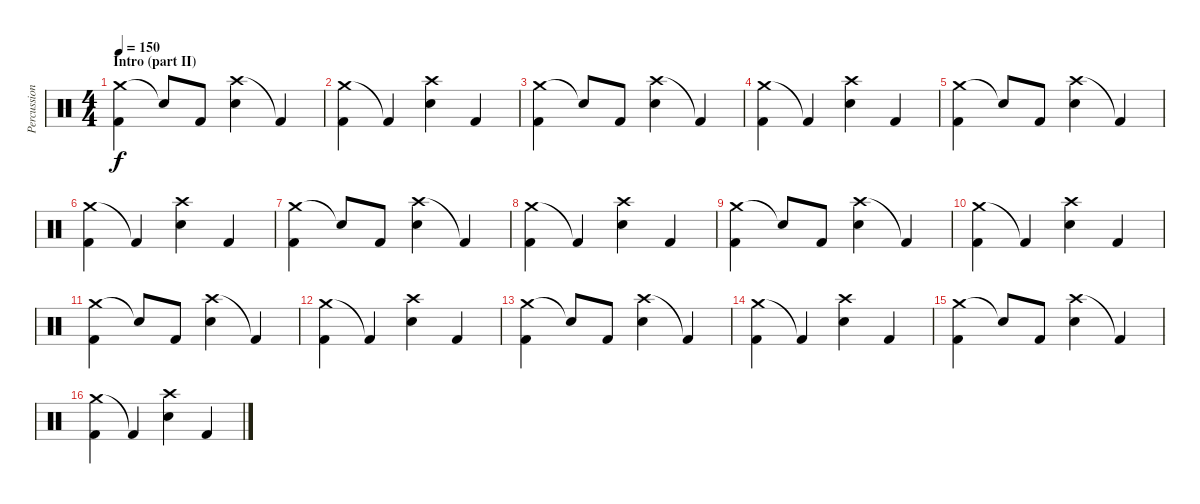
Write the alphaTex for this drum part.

\track ("Percussions" "Percussion") {instrument percussion}
\staff {score}
\articulation defaults
\ts (4 4)
\section ("" "Intro (part II)")
\tempo 150
\clef neutral
\ks c
("Crash medium (hit)" "Kick (hit) 2").4{dy f} "Snare (hit)"{t}.8 "Kick (hit) 2".8 ("Crash high (hit)" "Snare (hit) 2").4 "Kick (hit) 2"{t}.4 |
("Crash medium (hit)" "Kick (hit) 2").4 "Kick (hit) 2"{t}.4 ("Crash high (hit)" "Snare (hit) 2").4 "Kick (hit) 2".4 |
("Crash medium (hit)" "Kick (hit) 2").4 "Snare (hit)"{t}.8 "Kick (hit) 2".8 ("Crash high (hit)" "Snare (hit) 2").4 "Kick (hit) 2"{t}.4 |
("Crash medium (hit)" "Kick (hit) 2").4 "Kick (hit) 2"{t}.4 ("Crash high (hit)" "Snare (hit) 2").4 "Kick (hit) 2".4 |
("Crash medium (hit)" "Kick (hit) 2").4 "Snare (hit)"{t}.8 "Kick (hit) 2".8 ("Crash high (hit)" "Snare (hit) 2").4 "Kick (hit) 2"{t}.4 |
("Crash medium (hit)" "Kick (hit) 2").4 "Kick (hit) 2"{t}.4 ("Crash high (hit)" "Snare (hit) 2").4 "Kick (hit) 2".4 |
("Crash medium (hit)" "Kick (hit) 2").4 "Snare (hit)"{t}.8 "Kick (hit) 2".8 ("Crash high (hit)" "Snare (hit) 2").4 "Kick (hit) 2"{t}.4 |
("Crash medium (hit)" "Kick (hit) 2").4 "Kick (hit) 2"{t}.4 ("Crash high (hit)" "Snare (hit) 2").4 "Kick (hit) 2".4 |
("Crash medium (hit)" "Kick (hit) 2").4 "Snare (hit)"{t}.8 "Kick (hit) 2".8 ("Crash high (hit)" "Snare (hit) 2").4 "Kick (hit) 2"{t}.4 |
("Crash medium (hit)" "Kick (hit) 2").4 "Kick (hit) 2"{t}.4 ("Crash high (hit)" "Snare (hit) 2").4 "Kick (hit) 2".4 |
("Crash medium (hit)" "Kick (hit) 2").4 "Snare (hit)"{t}.8 "Kick (hit) 2".8 ("Crash high (hit)" "Snare (hit) 2").4 "Kick (hit) 2"{t}.4 |
("Crash medium (hit)" "Kick (hit) 2").4 "Kick (hit) 2"{t}.4 ("Crash high (hit)" "Snare (hit) 2").4 "Kick (hit) 2".4 |
("Crash medium (hit)" "Kick (hit) 2").4 "Snare (hit)"{t}.8 "Kick (hit) 2".8 ("Crash high (hit)" "Snare (hit) 2").4 "Kick (hit) 2"{t}.4 |
("Crash medium (hit)" "Kick (hit) 2").4 "Kick (hit) 2"{t}.4 ("Crash high (hit)" "Snare (hit) 2").4 "Kick (hit) 2".4 |
("Crash medium (hit)" "Kick (hit) 2").4 "Snare (hit)"{t}.8 "Kick (hit) 2".8 ("Crash high (hit)" "Snare (hit) 2").4 "Kick (hit) 2"{t}.4 |
("Crash medium (hit)" "Kick (hit) 2").4 "Kick (hit) 2"{t}.4 ("Crash high (hit)" "Snare (hit) 2").4 "Kick (hit) 2".4
